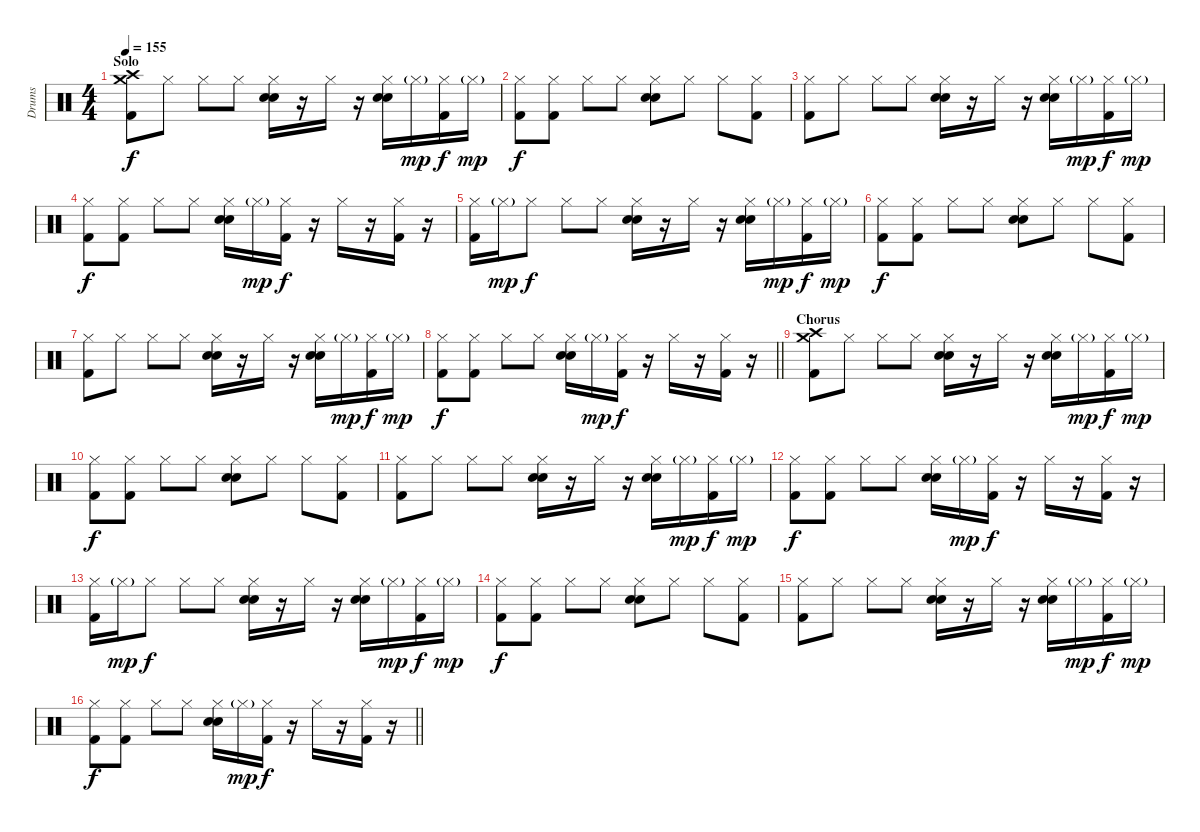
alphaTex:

\track ("Drums" "Drums") {instrument percussion}
\staff {score}
\articulation defaults
\ts (4 4)
\section ("" "Solo")
\tempo 155
\clef neutral
\ks c
("Crash high (hit)" "Crash medium (hit)" "Kick (hit) 2").8{dy f} "Hi-Hat (closed)".8 "Hi-Hat (closed)".8 "Hi-Hat (closed)".8 ("Hi-Hat (closed)" "Electric Snare (hit)" "Hand Clap (hit)").16 r.16 "Hi-Hat (closed)".16 r.16 ("Hi-Hat (closed)" "Electric Snare (hit)" "Hand Clap (hit)").16 "Hi-Hat (closed)"{g}.16{dy mp} ("Hi-Hat (closed)" "Kick (hit) 2").16{dy f} "Hi-Hat (closed)"{g}.16{dy mp} |
("Hi-Hat (closed)" "Kick (hit) 2").8{dy f} ("Hi-Hat (closed)" "Kick (hit) 2").8 "Hi-Hat (closed)".8 "Hi-Hat (closed)".8 ("Hi-Hat (closed)" "Electric Snare (hit)" "Hand Clap (hit)").8 "Hi-Hat (closed)".8 "Hi-Hat (closed)".8 ("Hi-Hat (closed)" "Kick (hit) 2").8 |
("Hi-Hat (closed)" "Kick (hit) 2").8 "Hi-Hat (closed)".8 "Hi-Hat (closed)".8 "Hi-Hat (closed)".8 ("Hi-Hat (closed)" "Electric Snare (hit)" "Hand Clap (hit)").16 r.16 "Hi-Hat (closed)".16 r.16 ("Hi-Hat (closed)" "Electric Snare (hit)" "Hand Clap (hit)").16 "Hi-Hat (closed)"{g}.16{dy mp} ("Hi-Hat (closed)" "Kick (hit) 2").16{dy f} "Hi-Hat (closed)"{g}.16{dy mp} |
("Hi-Hat (closed)" "Kick (hit) 2").8{dy f} ("Hi-Hat (closed)" "Kick (hit) 2").8 "Hi-Hat (closed)".8 "Hi-Hat (closed)".8 ("Hi-Hat (closed)" "Electric Snare (hit)" "Hand Clap (hit)").16 "Hi-Hat (closed)"{g}.16{dy mp} ("Hi-Hat (closed)" "Kick (hit) 2").16{dy f} r.16 "Hi-Hat (closed)".16 r.16 ("Hi-Hat (closed)" "Kick (hit) 2").16 r.16 |
("Hi-Hat (closed)" "Kick (hit) 2").16 "Hi-Hat (closed)"{g}.16{dy mp} "Hi-Hat (closed)".8{dy f} "Hi-Hat (closed)".8 "Hi-Hat (closed)".8 ("Hi-Hat (closed)" "Electric Snare (hit)" "Hand Clap (hit)").16 r.16 "Hi-Hat (closed)".16 r.16 ("Hi-Hat (closed)" "Electric Snare (hit)" "Hand Clap (hit)").16 "Hi-Hat (closed)"{g}.16{dy mp} ("Hi-Hat (closed)" "Kick (hit) 2").16{dy f} "Hi-Hat (closed)"{g}.16{dy mp} |
("Hi-Hat (closed)" "Kick (hit) 2").8{dy f} ("Hi-Hat (closed)" "Kick (hit) 2").8 "Hi-Hat (closed)".8 "Hi-Hat (closed)".8 ("Hi-Hat (closed)" "Electric Snare (hit)" "Hand Clap (hit)").8 "Hi-Hat (closed)".8 "Hi-Hat (closed)".8 ("Hi-Hat (closed)" "Kick (hit) 2").8 |
("Hi-Hat (closed)" "Kick (hit) 2").8 "Hi-Hat (closed)".8 "Hi-Hat (closed)".8 "Hi-Hat (closed)".8 ("Hi-Hat (closed)" "Electric Snare (hit)" "Hand Clap (hit)").16 r.16 "Hi-Hat (closed)".16 r.16 ("Hi-Hat (closed)" "Electric Snare (hit)" "Hand Clap (hit)").16 "Hi-Hat (closed)"{g}.16{dy mp} ("Hi-Hat (closed)" "Kick (hit) 2").16{dy f} "Hi-Hat (closed)"{g}.16{dy mp} |
\barLineRight lightlight
("Hi-Hat (closed)" "Kick (hit) 2").8{dy f} ("Hi-Hat (closed)" "Kick (hit) 2").8 "Hi-Hat (closed)".8 "Hi-Hat (closed)".8 ("Hi-Hat (closed)" "Electric Snare (hit)" "Hand Clap (hit)").16 "Hi-Hat (closed)"{g}.16{dy mp} ("Hi-Hat (closed)" "Kick (hit) 2").16{dy f} r.16 "Hi-Hat (closed)".16 r.16 ("Hi-Hat (closed)" "Kick (hit) 2").16 r.16 |
\section ("" "Chorus")
("Crash high (hit)" "Crash medium (hit)" "Kick (hit) 2").8 "Hi-Hat (closed)".8 "Hi-Hat (closed)".8 "Hi-Hat (closed)".8 ("Hi-Hat (closed)" "Electric Snare (hit)" "Hand Clap (hit)").16 r.16 "Hi-Hat (closed)".16 r.16 ("Hi-Hat (closed)" "Electric Snare (hit)" "Hand Clap (hit)").16 "Hi-Hat (closed)"{g}.16{dy mp} ("Hi-Hat (closed)" "Kick (hit) 2").16{dy f} "Hi-Hat (closed)"{g}.16{dy mp} |
("Hi-Hat (closed)" "Kick (hit) 2").8{dy f} ("Hi-Hat (closed)" "Kick (hit) 2").8 "Hi-Hat (closed)".8 "Hi-Hat (closed)".8 ("Hi-Hat (closed)" "Electric Snare (hit)" "Hand Clap (hit)").8 "Hi-Hat (closed)".8 "Hi-Hat (closed)".8 ("Hi-Hat (closed)" "Kick (hit) 2").8 |
("Hi-Hat (closed)" "Kick (hit) 2").8 "Hi-Hat (closed)".8 "Hi-Hat (closed)".8 "Hi-Hat (closed)".8 ("Hi-Hat (closed)" "Electric Snare (hit)" "Hand Clap (hit)").16 r.16 "Hi-Hat (closed)".16 r.16 ("Hi-Hat (closed)" "Electric Snare (hit)" "Hand Clap (hit)").16 "Hi-Hat (closed)"{g}.16{dy mp} ("Hi-Hat (closed)" "Kick (hit) 2").16{dy f} "Hi-Hat (closed)"{g}.16{dy mp} |
("Hi-Hat (closed)" "Kick (hit) 2").8{dy f} ("Hi-Hat (closed)" "Kick (hit) 2").8 "Hi-Hat (closed)".8 "Hi-Hat (closed)".8 ("Hi-Hat (closed)" "Electric Snare (hit)" "Hand Clap (hit)").16 "Hi-Hat (closed)"{g}.16{dy mp} ("Hi-Hat (closed)" "Kick (hit) 2").16{dy f} r.16 "Hi-Hat (closed)".16 r.16 ("Hi-Hat (closed)" "Kick (hit) 2").16 r.16 |
("Hi-Hat (closed)" "Kick (hit) 2").16 "Hi-Hat (closed)"{g}.16{dy mp} "Hi-Hat (closed)".8{dy f} "Hi-Hat (closed)".8 "Hi-Hat (closed)".8 ("Hi-Hat (closed)" "Electric Snare (hit)" "Hand Clap (hit)").16 r.16 "Hi-Hat (closed)".16 r.16 ("Hi-Hat (closed)" "Electric Snare (hit)" "Hand Clap (hit)").16 "Hi-Hat (closed)"{g}.16{dy mp} ("Hi-Hat (closed)" "Kick (hit) 2").16{dy f} "Hi-Hat (closed)"{g}.16{dy mp} |
("Hi-Hat (closed)" "Kick (hit) 2").8{dy f} ("Hi-Hat (closed)" "Kick (hit) 2").8 "Hi-Hat (closed)".8 "Hi-Hat (closed)".8 ("Hi-Hat (closed)" "Electric Snare (hit)" "Hand Clap (hit)").8 "Hi-Hat (closed)".8 "Hi-Hat (closed)".8 ("Hi-Hat (closed)" "Kick (hit) 2").8 |
("Hi-Hat (closed)" "Kick (hit) 2").8 "Hi-Hat (closed)".8 "Hi-Hat (closed)".8 "Hi-Hat (closed)".8 ("Hi-Hat (closed)" "Electric Snare (hit)" "Hand Clap (hit)").16 r.16 "Hi-Hat (closed)".16 r.16 ("Hi-Hat (closed)" "Electric Snare (hit)" "Hand Clap (hit)").16 "Hi-Hat (closed)"{g}.16{dy mp} ("Hi-Hat (closed)" "Kick (hit) 2").16{dy f} "Hi-Hat (closed)"{g}.16{dy mp} |
\barLineRight lightlight
("Hi-Hat (closed)" "Kick (hit) 2").8{dy f} ("Hi-Hat (closed)" "Kick (hit) 2").8 "Hi-Hat (closed)".8 "Hi-Hat (closed)".8 ("Hi-Hat (closed)" "Electric Snare (hit)" "Hand Clap (hit)").16 "Hi-Hat (closed)"{g}.16{dy mp} ("Hi-Hat (closed)" "Kick (hit) 2").16{dy f} r.16 "Hi-Hat (closed)".16 r.16 ("Hi-Hat (closed)" "Kick (hit) 2").16 r.16
